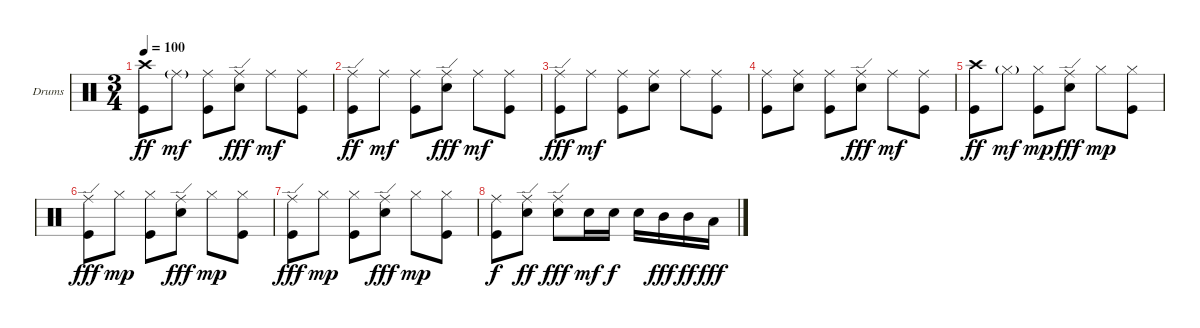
\defaultSystemsLayout 4
\bracketExtendMode groupsimilarinstruments
\firstSystemTrackNameOrientation horizontal
\otherSystemsTrackNameOrientation horizontal
\track ("Drumkit" "Drums") {instrument percussion}
\staff {score}
\articulation defaults
\ts (3 4)
\tempo 100
\clef neutral
\ks c
("Crash high (hit)" "Kick (hit)").8{dy ff} "Ride (middle)"{g}.8{dy mf} ("Ride (middle)" "Kick (hit)").8 ("Ride (edge)" "Snare (hit) 2").8{dy fff} "Ride (middle)".8{dy mf} ("Ride (middle)" "Kick (hit)").8 |
("Ride (edge)" "Kick (hit)").8{dy ff} "Ride (middle)".8{dy mf} ("Ride (middle)" "Kick (hit)").8 ("Ride (edge)" "Snare (hit) 2").8{dy fff} "Ride (middle)".8{dy mf} ("Ride (middle)" "Kick (hit)").8 |
("Ride (edge)" "Kick (hit)").8{dy fff} "Ride (middle)".8{dy mf} ("Ride (middle)" "Kick (hit)").8 ("Ride (middle)" "Snare (hit) 2").8 "Ride (middle)".8 ("Ride (middle)" "Kick (hit)").8 |
("Ride (middle)" "Kick (hit)").8 ("Ride (middle)" "Snare (hit) 2").8 ("Ride (middle)" "Kick (hit)").8 ("Ride (edge)" "Snare (hit) 2").8{dy fff} "Ride (middle)".8{dy mf} ("Ride (middle)" "Kick (hit)").8 |
("Crash high (hit)" "Kick (hit)").8{dy ff} "Hi-Hat (closed)"{g}.8{dy mf} ("Hi-Hat (closed)" "Kick (hit)").8{dy mp} ("Ride (edge)" "Snare (hit) 2").8{dy fff} "Hi-Hat (closed)".8{dy mp} ("Hi-Hat (closed)" "Kick (hit)").8 |
("Ride (edge)" "Kick (hit)").8{dy fff} "Hi-Hat (closed)".8{dy mp} ("Hi-Hat (closed)" "Kick (hit)").8 ("Ride (edge)" "Snare (hit) 2").8{dy fff} "Hi-Hat (closed)".8{dy mp} ("Hi-Hat (closed)" "Kick (hit)").8 |
("Ride (edge)" "Kick (hit)").8{dy fff} "Hi-Hat (closed)".8{dy mp} ("Hi-Hat (closed)" "Kick (hit)").8 ("Ride (edge)" "Snare (hit) 2").8{dy fff} "Hi-Hat (closed)".8{dy mp} ("Hi-Hat (closed)" "Kick (hit)").8 |
("Ride (middle)" "Kick (hit)").8{dy f} ("Ride (edge)" "Snare (hit) 2").8{dy ff} ("Ride (edge)" "Snare (hit) 2").8{dy fff} "Snare (hit) 2".16{dy mf} "Snare (hit) 2".16{dy f} "Snare (hit) 2".16 "Mid Tom (hit)".16{dy fff} "Mid Tom (hit)".16{dy ff} "Low Tom (hit)".16{dy fff}
